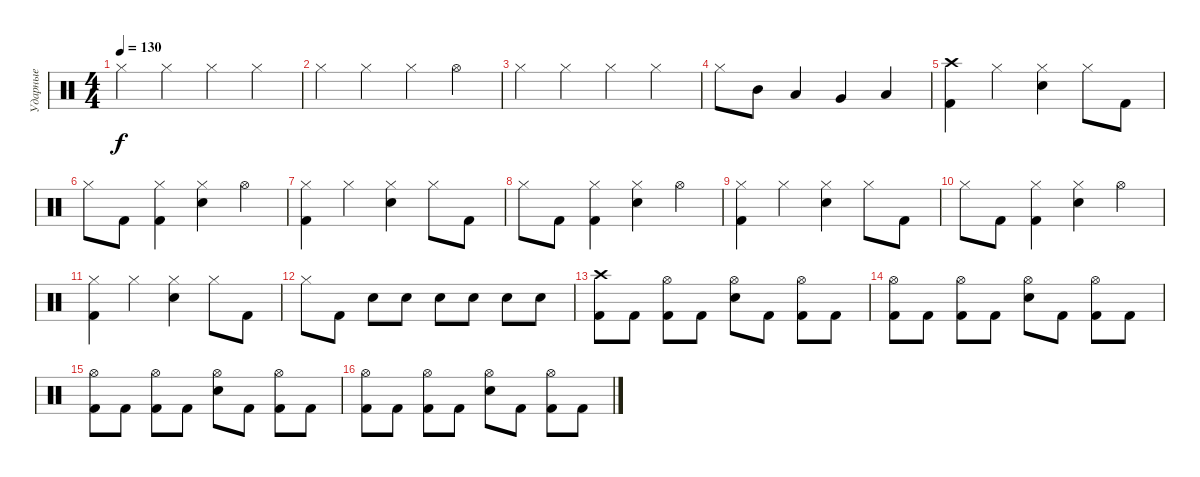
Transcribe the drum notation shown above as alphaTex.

\track ("Ударные" "Ударные") {instrument percussion}
\staff {score}
\articulation defaults
\ts (4 4)
\tempo 130
\clef neutral
\ks c "Hi-Hat (closed)".4{dy f} "Hi-Hat (closed)".4 "Hi-Hat (closed)".4 "Hi-Hat (closed)".4
|
"Hi-Hat (closed)".4 "Hi-Hat (closed)".4 "Hi-Hat (closed)".4 "Hi-Hat (open)".4 |
"Hi-Hat (closed)".4 "Hi-Hat (closed)".4 "Hi-Hat (closed)".4 "Hi-Hat (closed)".4 |
"Hi-Hat (closed)".8 "Mid Tom (hit)".8 "Low Tom (hit)".4 "Very Low Tom (hit)".4 "Low Floor Tom (hit)".4 |
("Crash high (hit)" "Kick (hit) 2").4 "Hi-Hat (closed)".4 ("Hi-Hat (closed)" "Snare (hit) 2").4 "Hi-Hat (closed)".8 "Kick (hit) 2".8 |
"Hi-Hat (closed)".8 "Kick (hit) 2".8 ("Hi-Hat (closed)" "Kick (hit) 2").4 ("Hi-Hat (closed)" "Snare (hit) 2").4 "Hi-Hat (open)".4 |
("Hi-Hat (closed)" "Kick (hit) 2").4 "Hi-Hat (closed)".4 ("Hi-Hat (closed)" "Snare (hit) 2").4 "Hi-Hat (closed)".8 "Kick (hit) 2".8 |
"Hi-Hat (closed)".8 "Kick (hit) 2".8 ("Hi-Hat (closed)" "Kick (hit) 2").4 ("Hi-Hat (closed)" "Snare (hit) 2").4 "Hi-Hat (open)".4 |
("Hi-Hat (closed)" "Kick (hit) 2").4 "Hi-Hat (closed)".4 ("Hi-Hat (closed)" "Snare (hit) 2").4 "Hi-Hat (closed)".8 "Kick (hit) 2".8 |
"Hi-Hat (closed)".8 "Kick (hit) 2".8 ("Hi-Hat (closed)" "Kick (hit) 2").4 ("Hi-Hat (closed)" "Snare (hit) 2").4 "Hi-Hat (open)".4 |
("Hi-Hat (closed)" "Kick (hit) 2").4 "Hi-Hat (closed)".4 ("Hi-Hat (closed)" "Snare (hit) 2").4 "Hi-Hat (closed)".8 "Kick (hit) 2".8 |
"Hi-Hat (closed)".8 "Kick (hit) 2".8 "Snare (hit) 2".8 "Snare (hit) 2".8 "Snare (hit) 2".8 "Snare (hit) 2".8 "Snare (hit) 2".8 "Snare (hit) 2".8 |
("Crash high (hit)" "Kick (hit) 2").8 "Kick (hit) 2".8 ("Hi-Hat (open)" "Kick (hit) 2").8 "Kick (hit) 2".8 ("Hi-Hat (open)" "Snare (hit) 2").8 "Kick (hit) 2".8 ("Hi-Hat (open)" "Kick (hit) 2").8 "Kick (hit) 2".8 |
("Hi-Hat (open)" "Kick (hit) 2").8 "Kick (hit) 2".8 ("Hi-Hat (open)" "Kick (hit) 2").8 "Kick (hit) 2".8 ("Hi-Hat (open)" "Snare (hit) 2").8 "Kick (hit) 2".8 ("Hi-Hat (open)" "Kick (hit) 2").8 "Kick (hit) 2".8 |
("Hi-Hat (open)" "Kick (hit) 2").8 "Kick (hit) 2".8 ("Hi-Hat (open)" "Kick (hit) 2").8 "Kick (hit) 2".8 ("Hi-Hat (open)" "Snare (hit) 2").8 "Kick (hit) 2".8 ("Hi-Hat (open)" "Kick (hit) 2").8 "Kick (hit) 2".8 |
("Hi-Hat (open)" "Kick (hit) 2").8 "Kick (hit) 2".8 ("Hi-Hat (open)" "Kick (hit) 2").8 "Kick (hit) 2".8 ("Hi-Hat (open)" "Snare (hit) 2").8 "Kick (hit) 2".8 ("Hi-Hat (open)" "Kick (hit) 2").8 "Kick (hit) 2".8
